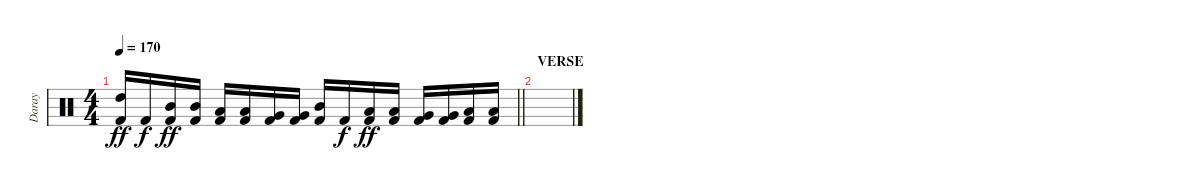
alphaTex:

\track ("Daray" "Daray") {instrument percussion}
\staff {score}
\articulation defaults
\ts (4 4)
\tempo 170
\clef neutral
\barLineRight lightlight
\ks c
("Kick (hit) 2" "High Tom (hit)").16{dy ff} "Kick (hit) 2".16{dy f} ("Kick (hit) 2" "Mid Tom (hit)").16{dy ff} ("Kick (hit) 2" "Mid Tom (hit)").16 ("Kick (hit) 2" "Low Tom (hit)").16 ("Kick (hit) 2" "Low Tom (hit)").16 ("Kick (hit) 2" "Very Low Tom (hit)").16 ("Kick (hit) 2" "Very Low Tom (hit)").16 ("Kick (hit) 2" "Mid Tom (hit)").16 "Kick (hit) 2".16{dy f} ("Kick (hit) 2" "Low Tom (hit)").16{dy ff} ("Kick (hit) 2" "Low Tom (hit)").16 ("Kick (hit) 2" "Very Low Tom (hit)").16 ("Kick (hit) 2" "Very Low Tom (hit)").16 ("Kick (hit) 2" "Low Floor Tom (hit)").16 ("Kick (hit) 2" "Low Floor Tom (hit)").16 |
\section ("" "VERSE")
